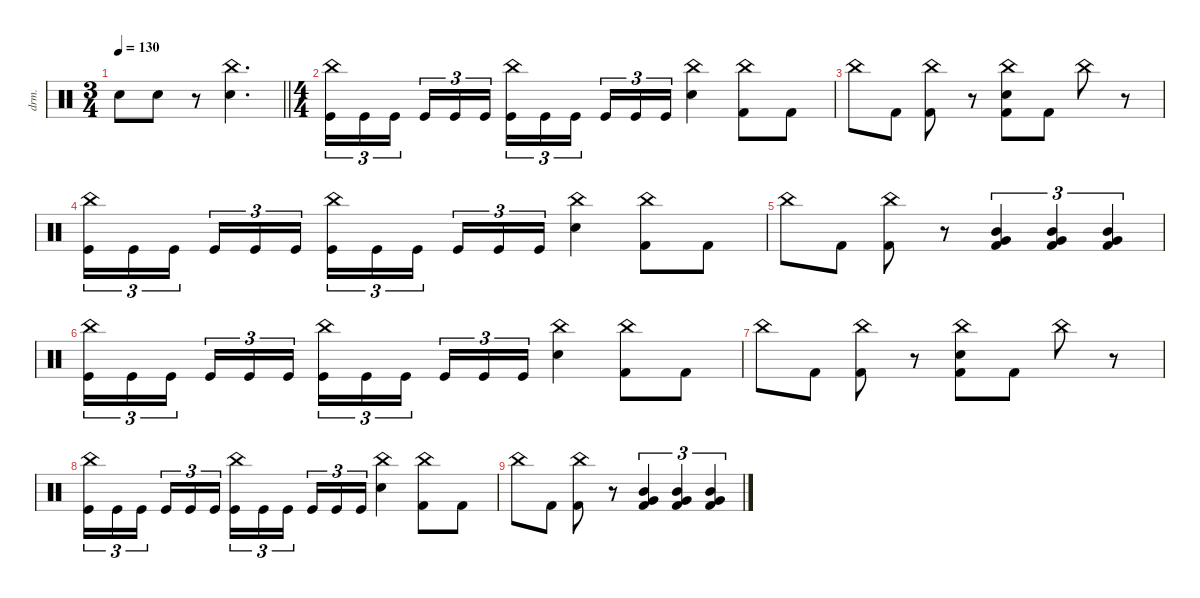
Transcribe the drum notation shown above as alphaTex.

\defaultSystemsLayout 4
\hideDynamics
\bracketExtendMode nobrackets
\otherSystemsTrackNameOrientation horizontal
\track ("Manouche" "drm.") {instrument percussion}
\staff {score}
\articulation defaults
\ts (3 4)
\tempo 130
\clef neutral
\barLineRight lightlight
\ks c "Snare (hit) 2".8{dy f beam Down} "Snare (hit) 2".8{beam Down}
r.8{beam Down} ("China (hit)" "Snare (hit) 2").4{d beam Down} |
\ts (4 4)
\beaming (8 2 2 2 2)
("Kick (hit)" "China (hit)").16{tu (3 2) beam Down} "Kick (hit)".16{tu (3 2) beam Down} "Kick (hit)".16{tu (3 2) beam Down} "Kick (hit)".16{tu (3 2) beam Up} "Kick (hit)".16{tu (3 2) beam Up} "Kick (hit)".16{tu (3 2) beam Up} ("China (hit)" "Kick (hit)").16{tu (3 2) beam Down} "Kick (hit)".16{tu (3 2) beam Down} "Kick (hit)".16{tu (3 2) beam Down} "Kick (hit)".16{tu (3 2) beam Up} "Kick (hit)".16{tu (3 2) beam Up} "Kick (hit)".16{tu (3 2) beam Up} ("China (hit)" "Snare (hit) 2").4{beam Down} ("Kick (hit) 2" "China (hit)").8{beam Down} "Kick (hit) 2".8{beam Down} |
"China (hit)".8{beam Down} "Kick (hit) 2".8{beam Down} ("Kick (hit) 2" "China (hit)").8{beam Down} r.8{beam Down} ("Kick (hit) 2" "China (hit)" "Snare (hit) 2").8{beam Down} "Kick (hit) 2".8{beam Down} "China (hit)".8{beam Down} r.8{beam Down} |
("Kick (hit)" "China (hit)").16{tu (3 2) beam Down} "Kick (hit)".16{tu (3 2) beam Down} "Kick (hit)".16{tu (3 2) beam Down} "Kick (hit)".16{tu (3 2) beam Up} "Kick (hit)".16{tu (3 2) beam Up} "Kick (hit)".16{tu (3 2) beam Up} ("China (hit)" "Kick (hit)").16{tu (3 2) beam Down} "Kick (hit)".16{tu (3 2) beam Down} "Kick (hit)".16{tu (3 2) beam Down} "Kick (hit)".16{tu (3 2) beam Up} "Kick (hit)".16{tu (3 2) beam Up} "Kick (hit)".16{tu (3 2) beam Up} ("China (hit)" "Snare (hit) 2").4{beam Down} ("Kick (hit) 2" "China (hit)").8{beam Down} "Kick (hit) 2".8{beam Down} |
"China (hit)".8{beam Down} "Kick (hit) 2".8{beam Down} ("Kick (hit) 2" "China (hit)").8{beam Down} r.8{beam Down} ("Kick (hit) 2" "Mid Tom (hit)" "Very Low Tom (hit)").4{tu (3 2) beam Up} ("Kick (hit) 2" "Mid Tom (hit)" "Very Low Tom (hit)").4{tu (3 2) beam Up} ("Kick (hit) 2" "Mid Tom (hit)" "Very Low Tom (hit)").4{tu (3 2) beam Up} |
("Kick (hit)" "China (hit)").16{tu (3 2) beam Down} "Kick (hit)".16{tu (3 2) beam Down} "Kick (hit)".16{tu (3 2) beam Down} "Kick (hit)".16{tu (3 2) beam Up} "Kick (hit)".16{tu (3 2) beam Up} "Kick (hit)".16{tu (3 2) beam Up} ("China (hit)" "Kick (hit)").16{tu (3 2) beam Down} "Kick (hit)".16{tu (3 2) beam Down} "Kick (hit)".16{tu (3 2) beam Down} "Kick (hit)".16{tu (3 2) beam Up} "Kick (hit)".16{tu (3 2) beam Up} "Kick (hit)".16{tu (3 2) beam Up} ("China (hit)" "Snare (hit) 2").4{beam Down} ("Kick (hit) 2" "China (hit)").8{beam Down} "Kick (hit) 2".8{beam Down} |
"China (hit)".8{beam Down} "Kick (hit) 2".8{beam Down} ("Kick (hit) 2" "China (hit)").8{beam Down} r.8{beam Down} ("Kick (hit) 2" "China (hit)" "Snare (hit) 2").8{beam Down} "Kick (hit) 2".8{beam Down} "China (hit)".8{beam Down} r.8{beam Down} |
("Kick (hit)" "China (hit)").16{tu (3 2) beam Down} "Kick (hit)".16{tu (3 2) beam Down} "Kick (hit)".16{tu (3 2) beam Down} "Kick (hit)".16{tu (3 2) beam Up} "Kick (hit)".16{tu (3 2) beam Up} "Kick (hit)".16{tu (3 2) beam Up} ("China (hit)" "Kick (hit)").16{tu (3 2) beam Down} "Kick (hit)".16{tu (3 2) beam Down} "Kick (hit)".16{tu (3 2) beam Down} "Kick (hit)".16{tu (3 2) beam Up} "Kick (hit)".16{tu (3 2) beam Up} "Kick (hit)".16{tu (3 2) beam Up} ("China (hit)" "Snare (hit) 2").4{beam Down} ("Kick (hit) 2" "China (hit)").8{beam Down} "Kick (hit) 2".8{beam Down} |
"China (hit)".8{beam Down} "Kick (hit) 2".8{beam Down} ("Kick (hit) 2" "China (hit)").8{beam Down} r.8{beam Down} ("Kick (hit) 2" "Mid Tom (hit)" "Very Low Tom (hit)").4{tu (3 2) beam Up} ("Kick (hit) 2" "Mid Tom (hit)" "Very Low Tom (hit)").4{tu (3 2) beam Up} ("Kick (hit) 2" "Mid Tom (hit)" "Very Low Tom (hit)").4{tu (3 2) beam Up}
